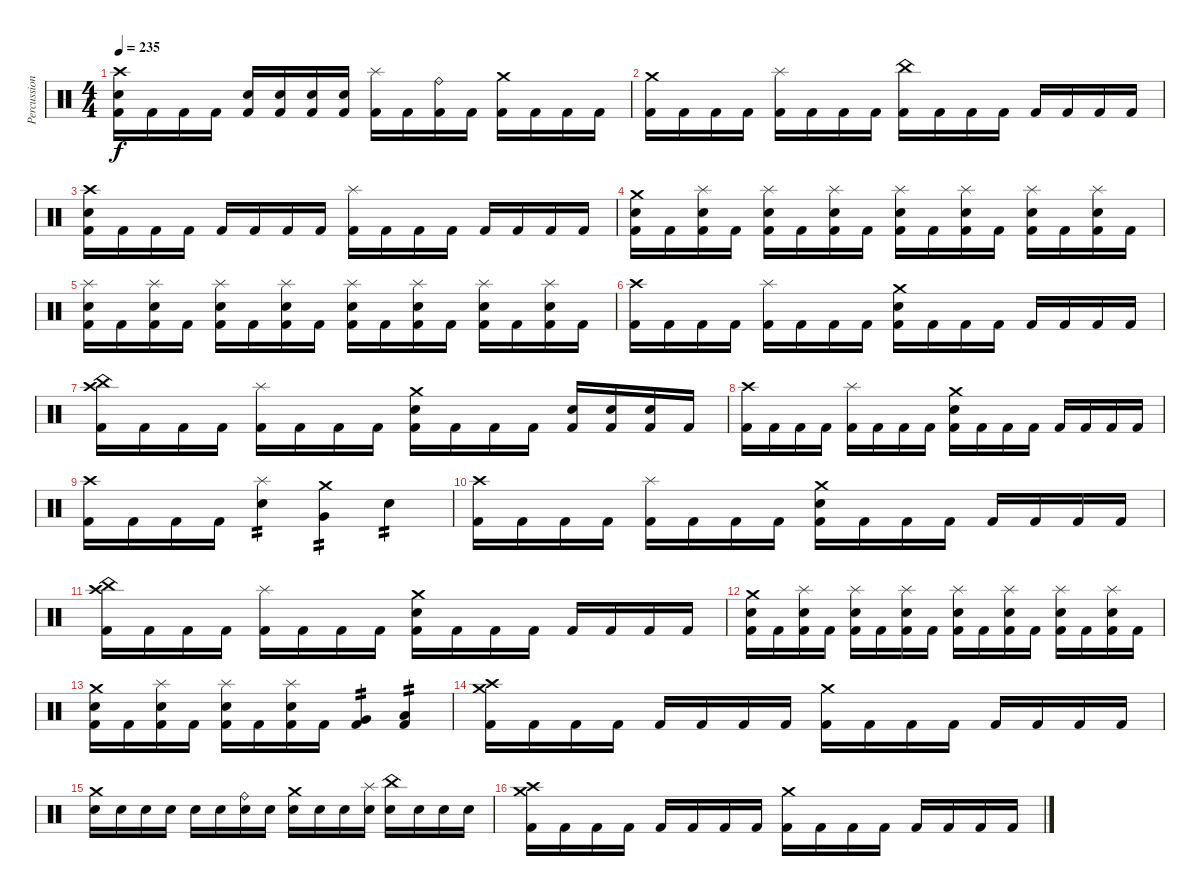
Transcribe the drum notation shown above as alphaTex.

\track ("Percussion" "Percussion") {instrument percussion}
\staff {score}
\articulation defaults
\ts (4 4)
\tempo 235
\clef neutral
\ks c
("Crash high (hit)" "Snare (hit) 2" "Kick (hit) 2").16{dy f} "Kick (hit) 2".16 "Kick (hit) 2".16 "Kick (hit) 2".16 ("Snare (hit) 2" "Kick (hit) 2").16 ("Snare (hit) 2" "Kick (hit) 2").16 ("Snare (hit) 2" "Kick (hit) 2").16 ("Snare (hit) 2" "Kick (hit) 2").16 ("Splash (hit)" "Kick (hit) 2").16 "Kick (hit) 2".16 ("Ride (bell)" "Kick (hit) 2").16 "Kick (hit) 2".16 ("Crash medium (hit)" "Kick (hit) 2").16 "Kick (hit) 2".16 "Kick (hit) 2".16 "Kick (hit) 2".16 |
("Crash medium (hit)" "Kick (hit) 2").16 "Kick (hit) 2".16 "Kick (hit) 2".16 "Kick (hit) 2".16 ("Splash (hit)" "Kick (hit) 2").16 "Kick (hit) 2".16 "Kick (hit) 2".16 "Kick (hit) 2".16 ("China (hit)" "Kick (hit) 2").16 "Kick (hit) 2".16 "Kick (hit) 2".16 "Kick (hit) 2".16 "Kick (hit) 2".16 "Kick (hit) 2".16 "Kick (hit) 2".16 "Kick (hit) 2".16 |
("Crash high (hit)" "Snare (hit) 2" "Kick (hit) 2").16 "Kick (hit) 2".16 "Kick (hit) 2".16 "Kick (hit) 2".16 "Kick (hit) 2".16 "Kick (hit) 2".16 "Kick (hit) 2".16 "Kick (hit) 2".16 ("Splash (hit)" "Kick (hit) 2").16 "Kick (hit) 2".16 "Kick (hit) 2".16 "Kick (hit) 2".16 "Kick (hit) 2".16 "Kick (hit) 2".16 "Kick (hit) 2".16 "Kick (hit) 2".16 |
("Crash medium (hit)" "Snare (hit) 2" "Kick (hit) 2").16 "Kick (hit) 2".16 ("Splash (hit)" "Snare (hit) 2" "Kick (hit) 2").16 "Kick (hit) 2".16 ("Splash (hit)" "Snare (hit) 2" "Kick (hit) 2").16 "Kick (hit) 2".16 ("Splash (hit)" "Snare (hit) 2" "Kick (hit) 2").16 "Kick (hit) 2".16 ("Splash (hit)" "Snare (hit) 2" "Kick (hit) 2").16 "Kick (hit) 2".16 ("Splash (hit)" "Snare (hit) 2" "Kick (hit) 2").16 "Kick (hit) 2".16 ("Splash (hit)" "Snare (hit) 2" "Kick (hit) 2").16 "Kick (hit) 2".16 ("Splash (hit)" "Snare (hit) 2" "Kick (hit) 2").16 "Kick (hit) 2".16 |
("Splash (hit)" "Snare (hit) 2" "Kick (hit) 2").16 "Kick (hit) 2".16 ("Splash (hit)" "Snare (hit) 2" "Kick (hit) 2").16 "Kick (hit) 2".16 ("Splash (hit)" "Snare (hit) 2" "Kick (hit) 2").16 "Kick (hit) 2".16 ("Splash (hit)" "Snare (hit) 2" "Kick (hit) 2").16 "Kick (hit) 2".16 ("Splash (hit)" "Snare (hit) 2" "Kick (hit) 2").16 "Kick (hit) 2".16 ("Splash (hit)" "Snare (hit) 2" "Kick (hit) 2").16 "Kick (hit) 2".16 ("Splash (hit)" "Snare (hit) 2" "Kick (hit) 2").16 "Kick (hit) 2".16 ("Splash (hit)" "Snare (hit) 2" "Kick (hit) 2").16 "Kick (hit) 2".16 |
("Crash high (hit)" "Kick (hit) 2").16 "Kick (hit) 2".16 "Kick (hit) 2".16 "Kick (hit) 2".16 ("Splash (hit)" "Kick (hit) 2").16 "Kick (hit) 2".16 "Kick (hit) 2".16 "Kick (hit) 2".16 ("Crash medium (hit)" "Snare (hit) 2" "Kick (hit) 2").16 "Kick (hit) 2".16 "Kick (hit) 2".16 "Kick (hit) 2".16 "Kick (hit) 2".16 "Kick (hit) 2".16 "Kick (hit) 2".16 "Kick (hit) 2".16 |
("Crash high (hit)" "China (hit)" "Kick (hit) 2").16 "Kick (hit) 2".16 "Kick (hit) 2".16 "Kick (hit) 2".16 ("Splash (hit)" "Kick (hit) 2").16 "Kick (hit) 2".16 "Kick (hit) 2".16 "Kick (hit) 2".16 ("Crash medium (hit)" "Snare (hit) 2" "Kick (hit) 2").16 "Kick (hit) 2".16 "Kick (hit) 2".16 "Kick (hit) 2".16 ("Snare (hit) 2" "Kick (hit) 2").16 ("Snare (hit) 2" "Kick (hit) 2").16 ("Snare (hit) 2" "Kick (hit) 2").16 "Kick (hit) 2".16 |
("Crash high (hit)" "Kick (hit) 2").16 "Kick (hit) 2".16 "Kick (hit) 2".16 "Kick (hit) 2".16 ("Splash (hit)" "Kick (hit) 2").16 "Kick (hit) 2".16 "Kick (hit) 2".16 "Kick (hit) 2".16 ("Crash medium (hit)" "Snare (hit) 2" "Kick (hit) 2").16 "Kick (hit) 2".16 "Kick (hit) 2".16 "Kick (hit) 2".16 "Kick (hit) 2".16 "Kick (hit) 2".16 "Kick (hit) 2".16 "Kick (hit) 2".16 |
("Crash high (hit)" "Kick (hit) 2").16 "Kick (hit) 2".16 "Kick (hit) 2".16 "Kick (hit) 2".16 ("Splash (hit)" "Snare (hit) 2").4{tp 2} ("Crash medium (hit)" "Very Low Tom (hit)").4{tp 2} "Snare (hit) 2".4{tp 2} |
("Crash high (hit)" "Kick (hit) 2").16 "Kick (hit) 2".16 "Kick (hit) 2".16 "Kick (hit) 2".16 ("Splash (hit)" "Kick (hit) 2").16 "Kick (hit) 2".16 "Kick (hit) 2".16 "Kick (hit) 2".16 ("Crash medium (hit)" "Snare (hit) 2" "Kick (hit) 2").16 "Kick (hit) 2".16 "Kick (hit) 2".16 "Kick (hit) 2".16 "Kick (hit) 2".16 "Kick (hit) 2".16 "Kick (hit) 2".16 "Kick (hit) 2".16 |
("Crash high (hit)" "China (hit)" "Kick (hit) 2").16 "Kick (hit) 2".16 "Kick (hit) 2".16 "Kick (hit) 2".16 ("Splash (hit)" "Kick (hit) 2").16 "Kick (hit) 2".16 "Kick (hit) 2".16 "Kick (hit) 2".16 ("Crash medium (hit)" "Snare (hit) 2" "Kick (hit) 2").16 "Kick (hit) 2".16 "Kick (hit) 2".16 "Kick (hit) 2".16 "Kick (hit) 2".16 "Kick (hit) 2".16 "Kick (hit) 2".16 "Kick (hit) 2".16 |
("Crash medium (hit)" "Snare (hit) 2" "Kick (hit) 2").16 "Kick (hit) 2".16 ("Splash (hit)" "Snare (hit) 2" "Kick (hit) 2").16 "Kick (hit) 2".16 ("Splash (hit)" "Snare (hit) 2" "Kick (hit) 2").16 "Kick (hit) 2".16 ("Splash (hit)" "Snare (hit) 2" "Kick (hit) 2").16 "Kick (hit) 2".16 ("Splash (hit)" "Snare (hit) 2" "Kick (hit) 2").16 "Kick (hit) 2".16 ("Splash (hit)" "Snare (hit) 2" "Kick (hit) 2").16 "Kick (hit) 2".16 ("Splash (hit)" "Snare (hit) 2" "Kick (hit) 2").16 "Kick (hit) 2".16 ("Splash (hit)" "Snare (hit) 2" "Kick (hit) 2").16 "Kick (hit) 2".16 |
("Crash medium (hit)" "Snare (hit) 2" "Kick (hit) 2").16 "Kick (hit) 2".16 ("Splash (hit)" "Snare (hit) 2" "Kick (hit) 2").16 "Kick (hit) 2".16 ("Splash (hit)" "Snare (hit) 2" "Kick (hit) 2").16 "Kick (hit) 2".16 ("Splash (hit)" "Snare (hit) 2" "Kick (hit) 2").16 "Kick (hit) 2".16 ("Kick (hit) 2" "Very Low Tom (hit)").4{tp 2} ("Kick (hit) 2" "Low Floor Tom (hit)").4{tp 2} |
("Crash high (hit)" "Crash medium (hit)" "Kick (hit) 2").16 "Kick (hit) 2".16 "Kick (hit) 2".16 "Kick (hit) 2".16 "Kick (hit) 2".16 "Kick (hit) 2".16 "Kick (hit) 2".16 "Kick (hit) 2".16 ("Crash medium (hit)" "Kick (hit) 2").16 "Kick (hit) 2".16 "Kick (hit) 2".16 "Kick (hit) 2".16 "Kick (hit) 2".16 "Kick (hit) 2".16 "Kick (hit) 2".16 "Kick (hit) 2".16 |
("Crash medium (hit)" "Snare (hit) 2").16 "Snare (hit)".16 "Snare (hit)".16 "Snare (hit)".16 "Snare (hit)".16 "Snare (hit)".16 ("Ride (bell)" "Snare (hit)").16 "Snare (hit)".16 ("Crash medium (hit)" "Snare (hit)").16 "Snare (hit)".16 "Snare (hit)".16 ("Splash (hit)" "Snare (hit)").16 ("China (hit)" "Snare (hit)").16 "Snare (hit)".16 "Snare (hit)".16 "Snare (hit)".16 |
("Crash high (hit)" "Crash medium (hit)" "Kick (hit) 2").16 "Kick (hit) 2".16 "Kick (hit) 2".16 "Kick (hit) 2".16 "Kick (hit) 2".16 "Kick (hit) 2".16 "Kick (hit) 2".16 "Kick (hit) 2".16 ("Crash medium (hit)" "Kick (hit) 2").16 "Kick (hit) 2".16 "Kick (hit) 2".16 "Kick (hit) 2".16 "Kick (hit) 2".16 "Kick (hit) 2".16 "Kick (hit) 2".16 "Kick (hit) 2".16
